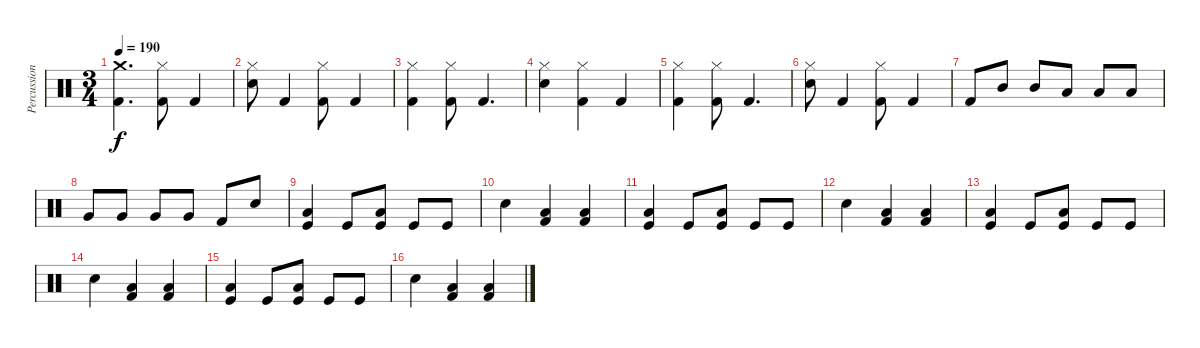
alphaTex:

\track ("Percussion" "Percussion") {instrument percussion}
\staff {score}
\articulation defaults
\ts (3 4)
\tempo 190
\clef neutral
\ks c
("Kick (hit) 2" "Crash medium (hit)").4{d dy f} ("Kick (hit) 2" "Hi-Hat (closed)").8 "Kick (hit) 2".4 |
("Snare (hit) 2" "Hi-Hat (closed)").8 "Kick (hit) 2".4 ("Kick (hit) 2" "Hi-Hat (closed)").8 "Kick (hit) 2".4 |
("Kick (hit) 2" "Hi-Hat (closed)").4 ("Kick (hit) 2" "Hi-Hat (closed)").8 "Kick (hit) 2".4{d} |
("Snare (hit) 2" "Hi-Hat (closed)").4 ("Kick (hit) 2" "Hi-Hat (closed)").4 "Kick (hit) 2".4 |
("Kick (hit) 2" "Hi-Hat (closed)").4 ("Kick (hit) 2" "Hi-Hat (closed)").8 "Kick (hit) 2".4{d} |
("Snare (hit) 2" "Hi-Hat (closed)").8 "Kick (hit) 2".4 ("Kick (hit) 2" "Hi-Hat (closed)").8 "Kick (hit) 2".4 |
"Kick (hit) 2".8 "Mid Tom (hit)".8 "Mid Tom (hit)".8 "Low Tom (hit)".8 "Low Tom (hit)".8 "Low Tom (hit)".8 |
"Very Low Tom (hit)".8 "Very Low Tom (hit)".8 "Very Low Tom (hit)".8 "Very Low Tom (hit)".8 "Kick (hit) 2".8 "Snare (hit) 2".8 |
("Kick (hit)" "Low Floor Tom (hit)").4 "Kick (hit)".8 ("Kick (hit)" "Low Tom (hit)").8 "Kick (hit)".8 "Kick (hit)".8 |
"Snare (hit) 2".4 ("Kick (hit) 2" "Low Floor Tom (hit)").4 ("Kick (hit) 2" "Low Floor Tom (hit)").4 |
("Kick (hit)" "Low Floor Tom (hit)").4 "Kick (hit)".8 ("Kick (hit)" "Low Tom (hit)").8 "Kick (hit)".8 "Kick (hit)".8 |
"Snare (hit) 2".4 ("Kick (hit) 2" "Low Floor Tom (hit)").4 ("Kick (hit) 2" "Low Floor Tom (hit)").4 |
("Kick (hit)" "Low Floor Tom (hit)").4 "Kick (hit)".8 ("Kick (hit)" "Low Tom (hit)").8 "Kick (hit)".8 "Kick (hit)".8 |
"Snare (hit) 2".4 ("Kick (hit) 2" "Low Floor Tom (hit)").4 ("Kick (hit) 2" "Low Floor Tom (hit)").4 |
("Kick (hit)" "Low Floor Tom (hit)").4 "Kick (hit)".8 ("Kick (hit)" "Low Tom (hit)").8 "Kick (hit)".8 "Kick (hit)".8 |
"Snare (hit) 2".4 ("Kick (hit) 2" "Low Floor Tom (hit)").4 ("Kick (hit) 2" "Low Floor Tom (hit)").4
